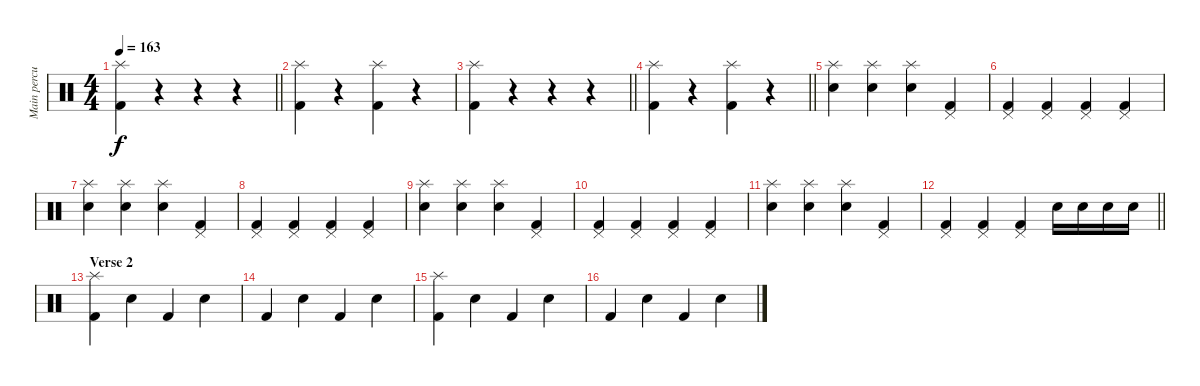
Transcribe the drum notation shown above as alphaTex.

\track ("Main percussion" "Main percu") {instrument percussion}
\staff {score}
\articulation defaults
\ts (4 4)
\tempo 163
\clef neutral
\barLineRight lightlight
\ks c
("Kick (hit) 2" "Splash (hit)").4{dy f} r.4 r.4 r.4 |
("Kick (hit) 2" "Splash (hit)").4 r.4 ("Kick (hit) 2" "Splash (hit)").4 r.4 |
\barLineRight lightlight
("Kick (hit) 2" "Splash (hit)").4 r.4 r.4 r.4 |
\barLineRight lightlight
("Kick (hit) 2" "Splash (hit)").4 r.4 ("Kick (hit) 2" "Splash (hit)").4 r.4 |
\section ("" "")
("Electric Snare (hit)" "Splash (hit)").4 ("Electric Snare (hit)" "Splash (hit)").4 ("Electric Snare (hit)" "Splash (hit)").4 ("Kick (hit) 2" "Pedal Hi-Hat (hit)").4 |
("Kick (hit) 2" "Pedal Hi-Hat (hit)").4 ("Kick (hit) 2" "Pedal Hi-Hat (hit)").4 ("Kick (hit) 2" "Pedal Hi-Hat (hit)").4 ("Kick (hit) 2" "Pedal Hi-Hat (hit)").4 |
("Electric Snare (hit)" "Splash (hit)").4 ("Electric Snare (hit)" "Splash (hit)").4 ("Electric Snare (hit)" "Splash (hit)").4 ("Kick (hit) 2" "Pedal Hi-Hat (hit)").4 |
("Kick (hit) 2" "Pedal Hi-Hat (hit)").4 ("Kick (hit) 2" "Pedal Hi-Hat (hit)").4 ("Kick (hit) 2" "Pedal Hi-Hat (hit)").4 ("Kick (hit) 2" "Pedal Hi-Hat (hit)").4 |
("Electric Snare (hit)" "Splash (hit)").4 ("Electric Snare (hit)" "Splash (hit)").4 ("Electric Snare (hit)" "Splash (hit)").4 ("Kick (hit) 2" "Pedal Hi-Hat (hit)").4 |
("Kick (hit) 2" "Pedal Hi-Hat (hit)").4 ("Kick (hit) 2" "Pedal Hi-Hat (hit)").4 ("Kick (hit) 2" "Pedal Hi-Hat (hit)").4 ("Kick (hit) 2" "Pedal Hi-Hat (hit)").4 |
("Electric Snare (hit)" "Splash (hit)").4 ("Electric Snare (hit)" "Splash (hit)").4 ("Electric Snare (hit)" "Splash (hit)").4 ("Kick (hit) 2" "Pedal Hi-Hat (hit)").4 |
\barLineRight lightlight
("Kick (hit) 2" "Pedal Hi-Hat (hit)").4 ("Kick (hit) 2" "Pedal Hi-Hat (hit)").4 ("Kick (hit) 2" "Pedal Hi-Hat (hit)").4 "Electric Snare (hit)".16 "Electric Snare (hit)".16 "Electric Snare (hit)".16 "Electric Snare (hit)".16 |
\section ("" "Verse 2")
("Kick (hit) 2" "Splash (hit)").4 "Electric Snare (hit)".4 "Kick (hit) 2".4 "Electric Snare (hit)".4 |
"Kick (hit) 2".4 "Electric Snare (hit)".4 "Kick (hit) 2".4 "Electric Snare (hit)".4 |
("Kick (hit) 2" "Splash (hit)").4 "Electric Snare (hit)".4 "Kick (hit) 2".4 "Electric Snare (hit)".4 |
"Kick (hit) 2".4 "Electric Snare (hit)".4 "Kick (hit) 2".4 "Electric Snare (hit)".4
